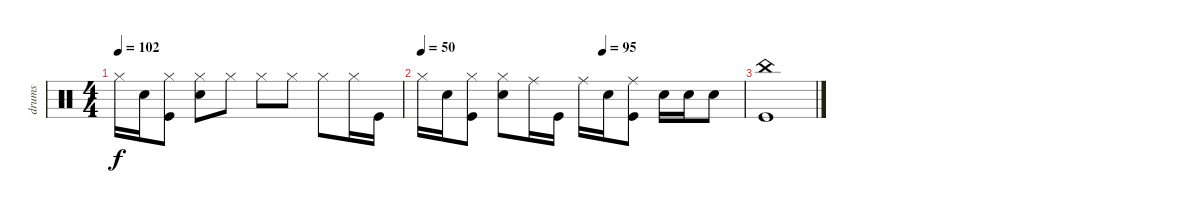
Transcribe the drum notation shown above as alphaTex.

\track ("drums" "drums") {instrument percussion}
\staff {score}
\articulation defaults
\ts (4 4)
\tempo 102
\clef neutral
\ks c "Hi-Hat (closed)".16{dy f} "Snare (hit) 2".16
("Hi-Hat (closed)" "Kick (hit)").8 ("Hi-Hat (closed)" "Snare (hit) 2").8 "Hi-Hat (closed)".8 "Hi-Hat (closed)".8 "Hi-Hat (closed)".8 "Hi-Hat (closed)".8 "Hi-Hat (closed)".16 "Kick (hit)".16 |
\tempo 50
\tempo (95 0.5625)
"Hi-Hat (closed)".16 "Snare (hit) 2".16 ("Hi-Hat (closed)" "Kick (hit)").8 ("Hi-Hat (closed)" "Snare (hit) 2").8 "Ride (middle)".16 "Kick (hit)".16 "Ride (middle)".16 "Snare (hit) 2".16 ("Ride (middle)" "Kick (hit)").8 "Snare (hit) 2".16 "Snare (hit) 2".16 "Snare (hit) 2".8 |
("China (hit)" "Kick (hit)").1
